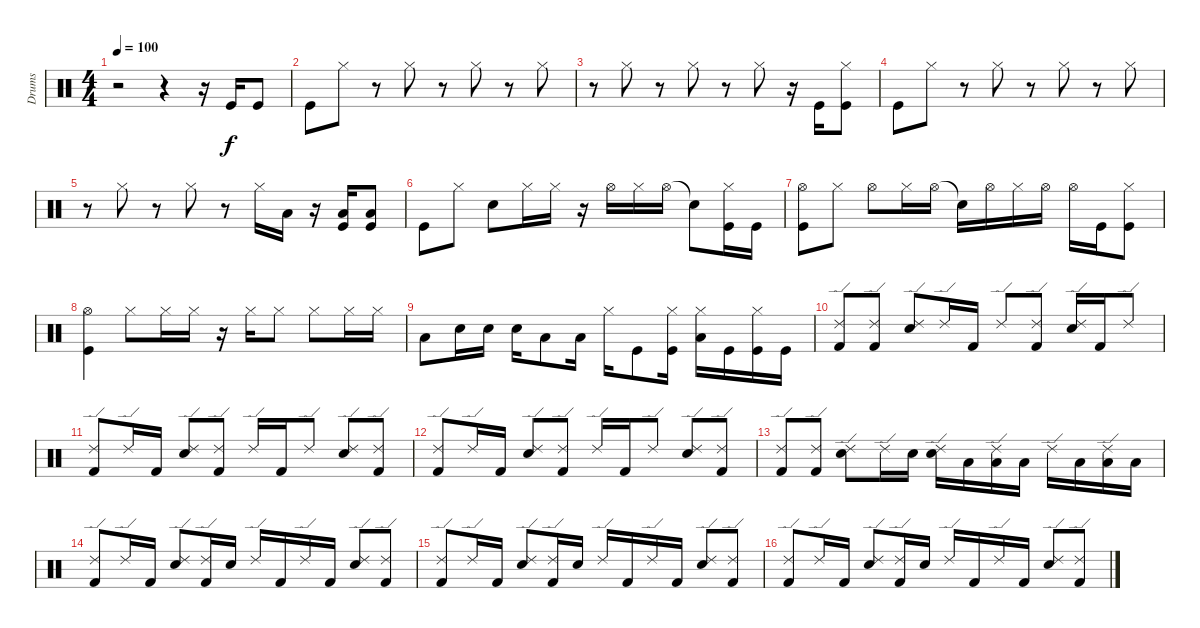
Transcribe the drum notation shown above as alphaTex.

\track ("Drums" "Drums") {instrument percussion}
\staff {score}
\articulation defaults
\ts (4 4)
\tempo 100
\clef neutral
\ks c
r.2{dy f} r.4 r.16 "Kick (hit)".16 "Kick (hit)".8 |
"Kick (hit)".8 "Hi-Hat (closed)".8 r.8 "Hi-Hat (closed)".8 r.8 "Hi-Hat (closed)".8 r.8 "Hi-Hat (closed)".8 |
r.8 "Hi-Hat (closed)".8 r.8 "Hi-Hat (closed)".8 r.8 "Hi-Hat (closed)".8 r.16 "Kick (hit)".16 ("Hi-Hat (closed)" "Kick (hit)").8 |
"Kick (hit)".8 "Hi-Hat (closed)".8 r.8 "Hi-Hat (closed)".8 r.8 "Hi-Hat (closed)".8 r.8 "Hi-Hat (closed)".8 |
r.8 "Hi-Hat (closed)".8 r.8 "Hi-Hat (closed)".8 r.8 "Hi-Hat (closed)".16 "Low Tom (hit)".16 r.16 ("Low Floor Tom (hit)" "Kick (hit)").16 ("Low Floor Tom (hit)" "Kick (hit)").8 |
"Kick (hit)".8 "Hi-Hat (closed)".8 "Electric Snare (hit)".8 "Hi-Hat (closed)".16 "Hi-Hat (closed)".16 r.16 "Hi-Hat (open)".16 "Hi-Hat (closed)".16 "Hi-Hat (open)".16 "Snare (hit)"{t}.8 ("Hi-Hat (closed)" "Kick (hit)").16 "Kick (hit)".16 |
("Hi-Hat (open)" "Kick (hit)").8 "Hi-Hat (closed)".8 "Hi-Hat (open)".8 "Hi-Hat (closed)".16 "Hi-Hat (open)".16 "Snare (hit)"{t}.16 "Hi-Hat (open)".16 "Hi-Hat (closed)".16 "Hi-Hat (open)".16 "Hi-Hat (open)".16 "Kick (hit)".16 ("Hi-Hat (closed)" "Kick (hit)").8 |
("Hi-Hat (open)" "Kick (hit)").4 "Hi-Hat (closed)".8 "Hi-Hat (closed)".16 "Hi-Hat (closed)".16 r.16 "Hi-Hat (closed)".16 "Hi-Hat (closed)".8 "Hi-Hat (closed)".8 "Hi-Hat (closed)".16 "Hi-Hat (closed)".16 |
"Low Tom (hit)".8 "Electric Snare (hit)".16 "Electric Snare (hit)".16 "Electric Snare (hit)".16 "Low Tom (hit)".8 "Low Tom (hit)".16 "Hi-Hat (closed)".16 "Kick (hit)".8 ("Hi-Hat (closed)" "Kick (hit)").16 ("Hi-Hat (closed)" "Low Floor Tom (hit)").16 "Kick (hit)".16 ("Hi-Hat (closed)" "Kick (hit)").16 "Kick (hit)".16 |
("Ride (edge) 2" "Kick (hit) 2").8 ("Ride (edge) 2" "Kick (hit) 2").8 ("Ride (edge) 2" "Electric Snare (hit)").8 "Ride (edge) 2".16 "Kick (hit) 2".16 "Ride (edge) 2".8 ("Ride (edge) 2" "Kick (hit) 2").8 ("Ride (edge) 2" "Electric Snare (hit)").16 "Kick (hit) 2".16 "Ride (edge) 2".8 |
("Ride (edge) 2" "Kick (hit) 2").8 "Ride (edge) 2".16 "Kick (hit) 2".16 ("Ride (edge) 2" "Electric Snare (hit)").8 ("Ride (edge) 2" "Kick (hit) 2").8 "Ride (edge) 2".16 "Kick (hit) 2".16 "Ride (edge) 2".8 ("Ride (edge) 2" "Electric Snare (hit)").8 ("Ride (edge) 2" "Kick (hit) 2").8 |
("Ride (edge) 2" "Kick (hit) 2").8 "Ride (edge) 2".16 "Kick (hit) 2".16 ("Ride (edge) 2" "Electric Snare (hit)").8 ("Ride (edge) 2" "Kick (hit) 2").8 "Ride (edge) 2".16 "Kick (hit) 2".16 "Ride (edge) 2".8 ("Ride (edge) 2" "Electric Snare (hit)").8 ("Ride (edge) 2" "Kick (hit) 2").8 |
("Ride (edge) 2" "Kick (hit) 2").8 ("Ride (edge) 2" "Kick (hit) 2").8 ("Ride (edge) 2" "Electric Snare (hit)").8 "Ride (edge) 2".16 "Electric Snare (hit)".16 ("Ride (edge) 2" "Electric Snare (hit)").16 "Low Floor Tom (hit)".16 ("Ride (edge) 2" "Low Floor Tom (hit)").16 "Low Floor Tom (hit)".16 "Ride (edge) 2".16 "Low Tom (hit)".16 ("Ride (edge) 2" "Low Tom (hit)").16 "Low Tom (hit)".16 |
("Ride (edge) 2" "Kick (hit) 2").8 "Ride (edge) 2".16 "Kick (hit) 2".16 ("Ride (edge) 2" "Electric Snare (hit)").8 ("Ride (edge) 2" "Kick (hit) 2").16 "Electric Snare (hit)".16 "Ride (edge) 2".16 "Kick (hit) 2".16 "Ride (edge) 2".16 "Kick (hit) 2".16 ("Ride (edge) 2" "Electric Snare (hit)").8 ("Ride (edge) 2" "Kick (hit) 2").8 |
("Ride (edge) 2" "Kick (hit) 2").8 "Ride (edge) 2".16 "Kick (hit) 2".16 ("Ride (edge) 2" "Electric Snare (hit)").8 ("Ride (edge) 2" "Kick (hit) 2").16 "Electric Snare (hit)".16 "Ride (edge) 2".16 "Kick (hit) 2".16 "Ride (edge) 2".16 "Kick (hit) 2".16 ("Ride (edge) 2" "Electric Snare (hit)").8 ("Ride (edge) 2" "Kick (hit) 2").8 |
("Ride (edge) 2" "Kick (hit) 2").8 "Ride (edge) 2".16 "Kick (hit) 2".16 ("Ride (edge) 2" "Electric Snare (hit)").8 ("Ride (edge) 2" "Kick (hit) 2").16 "Electric Snare (hit)".16 "Ride (edge) 2".16 "Kick (hit) 2".16 "Ride (edge) 2".16 "Kick (hit) 2".16 ("Ride (edge) 2" "Electric Snare (hit)").8 ("Ride (edge) 2" "Kick (hit) 2").8
